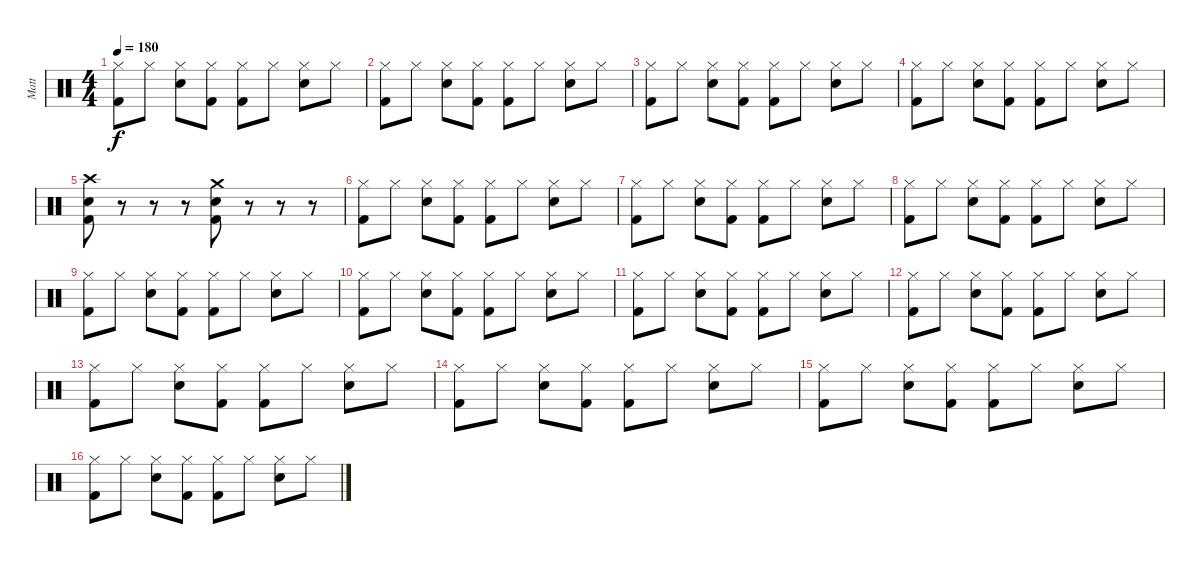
\track ("Matt" "Matt") {instrument percussion}
\staff {score}
\articulation defaults
\ts (4 4)
\tempo 180
\clef neutral
\ks c
("Hi-Hat (closed)" "Kick (hit) 2").8{dy f} "Hi-Hat (closed)".8 ("Hi-Hat (closed)" "Snare (hit) 2").8 ("Hi-Hat (closed)" "Kick (hit) 2").8 ("Hi-Hat (closed)" "Kick (hit) 2").8 "Hi-Hat (closed)".8 ("Hi-Hat (closed)" "Snare (hit) 2").8 "Hi-Hat (closed)".8 |
("Hi-Hat (closed)" "Kick (hit) 2").8 "Hi-Hat (closed)".8 ("Hi-Hat (closed)" "Snare (hit) 2").8 ("Hi-Hat (closed)" "Kick (hit) 2").8 ("Hi-Hat (closed)" "Kick (hit) 2").8 "Hi-Hat (closed)".8 ("Hi-Hat (closed)" "Snare (hit) 2").8 "Hi-Hat (closed)".8 |
("Hi-Hat (closed)" "Kick (hit) 2").8 "Hi-Hat (closed)".8 ("Hi-Hat (closed)" "Snare (hit) 2").8 ("Hi-Hat (closed)" "Kick (hit) 2").8 ("Hi-Hat (closed)" "Kick (hit) 2").8 "Hi-Hat (closed)".8 ("Hi-Hat (closed)" "Snare (hit) 2").8 "Hi-Hat (closed)".8 |
("Hi-Hat (closed)" "Kick (hit) 2").8 "Hi-Hat (closed)".8 ("Hi-Hat (closed)" "Snare (hit) 2").8 ("Hi-Hat (closed)" "Kick (hit) 2").8 ("Hi-Hat (closed)" "Kick (hit) 2").8 "Hi-Hat (closed)".8 ("Hi-Hat (closed)" "Snare (hit) 2").8 "Hi-Hat (closed)".8 |
("Crash high (hit)" "Snare (hit) 2" "Kick (hit) 2").8 r.8 r.8 r.8 ("Crash medium (hit)" "Snare (hit) 2" "Kick (hit) 2").8 r.8 r.8 r.8 |
("Hi-Hat (closed)" "Kick (hit) 2").8 "Hi-Hat (closed)".8 ("Hi-Hat (closed)" "Snare (hit) 2").8 ("Hi-Hat (closed)" "Kick (hit) 2").8 ("Hi-Hat (closed)" "Kick (hit) 2").8 "Hi-Hat (closed)".8 ("Hi-Hat (closed)" "Snare (hit) 2").8 "Hi-Hat (closed)".8 |
("Hi-Hat (closed)" "Kick (hit) 2").8 "Hi-Hat (closed)".8 ("Hi-Hat (closed)" "Snare (hit) 2").8 ("Hi-Hat (closed)" "Kick (hit) 2").8 ("Hi-Hat (closed)" "Kick (hit) 2").8 "Hi-Hat (closed)".8 ("Hi-Hat (closed)" "Snare (hit) 2").8 "Hi-Hat (closed)".8 |
("Hi-Hat (closed)" "Kick (hit) 2").8 "Hi-Hat (closed)".8 ("Hi-Hat (closed)" "Snare (hit) 2").8 ("Hi-Hat (closed)" "Kick (hit) 2").8 ("Hi-Hat (closed)" "Kick (hit) 2").8 "Hi-Hat (closed)".8 ("Hi-Hat (closed)" "Snare (hit) 2").8 "Hi-Hat (closed)".8 |
("Hi-Hat (closed)" "Kick (hit) 2").8 "Hi-Hat (closed)".8 ("Hi-Hat (closed)" "Snare (hit) 2").8 ("Hi-Hat (closed)" "Kick (hit) 2").8 ("Hi-Hat (closed)" "Kick (hit) 2").8 "Hi-Hat (closed)".8 ("Hi-Hat (closed)" "Snare (hit) 2").8 "Hi-Hat (closed)".8 |
("Hi-Hat (closed)" "Kick (hit) 2").8 "Hi-Hat (closed)".8 ("Hi-Hat (closed)" "Snare (hit) 2").8 ("Hi-Hat (closed)" "Kick (hit) 2").8 ("Hi-Hat (closed)" "Kick (hit) 2").8 "Hi-Hat (closed)".8 ("Hi-Hat (closed)" "Snare (hit) 2").8 "Hi-Hat (closed)".8 |
("Hi-Hat (closed)" "Kick (hit) 2").8 "Hi-Hat (closed)".8 ("Hi-Hat (closed)" "Snare (hit) 2").8 ("Hi-Hat (closed)" "Kick (hit) 2").8 ("Hi-Hat (closed)" "Kick (hit) 2").8 "Hi-Hat (closed)".8 ("Hi-Hat (closed)" "Snare (hit) 2").8 "Hi-Hat (closed)".8 |
("Hi-Hat (closed)" "Kick (hit) 2").8 "Hi-Hat (closed)".8 ("Hi-Hat (closed)" "Snare (hit) 2").8 ("Hi-Hat (closed)" "Kick (hit) 2").8 ("Hi-Hat (closed)" "Kick (hit) 2").8 "Hi-Hat (closed)".8 ("Hi-Hat (closed)" "Snare (hit) 2").8 "Hi-Hat (closed)".8 |
("Hi-Hat (closed)" "Kick (hit) 2").8 "Hi-Hat (closed)".8 ("Hi-Hat (closed)" "Snare (hit) 2").8 ("Hi-Hat (closed)" "Kick (hit) 2").8 ("Hi-Hat (closed)" "Kick (hit) 2").8 "Hi-Hat (closed)".8 ("Hi-Hat (closed)" "Snare (hit) 2").8 "Hi-Hat (closed)".8 |
("Hi-Hat (closed)" "Kick (hit) 2").8 "Hi-Hat (closed)".8 ("Hi-Hat (closed)" "Snare (hit) 2").8 ("Hi-Hat (closed)" "Kick (hit) 2").8 ("Hi-Hat (closed)" "Kick (hit) 2").8 "Hi-Hat (closed)".8 ("Hi-Hat (closed)" "Snare (hit) 2").8 "Hi-Hat (closed)".8 |
("Hi-Hat (closed)" "Kick (hit) 2").8 "Hi-Hat (closed)".8 ("Hi-Hat (closed)" "Snare (hit) 2").8 ("Hi-Hat (closed)" "Kick (hit) 2").8 ("Hi-Hat (closed)" "Kick (hit) 2").8 "Hi-Hat (closed)".8 ("Hi-Hat (closed)" "Snare (hit) 2").8 "Hi-Hat (closed)".8 |
("Hi-Hat (closed)" "Kick (hit) 2").8 "Hi-Hat (closed)".8 ("Hi-Hat (closed)" "Snare (hit) 2").8 ("Hi-Hat (closed)" "Kick (hit) 2").8 ("Hi-Hat (closed)" "Kick (hit) 2").8 "Hi-Hat (closed)".8 ("Hi-Hat (closed)" "Snare (hit) 2").8 "Hi-Hat (closed)".8
